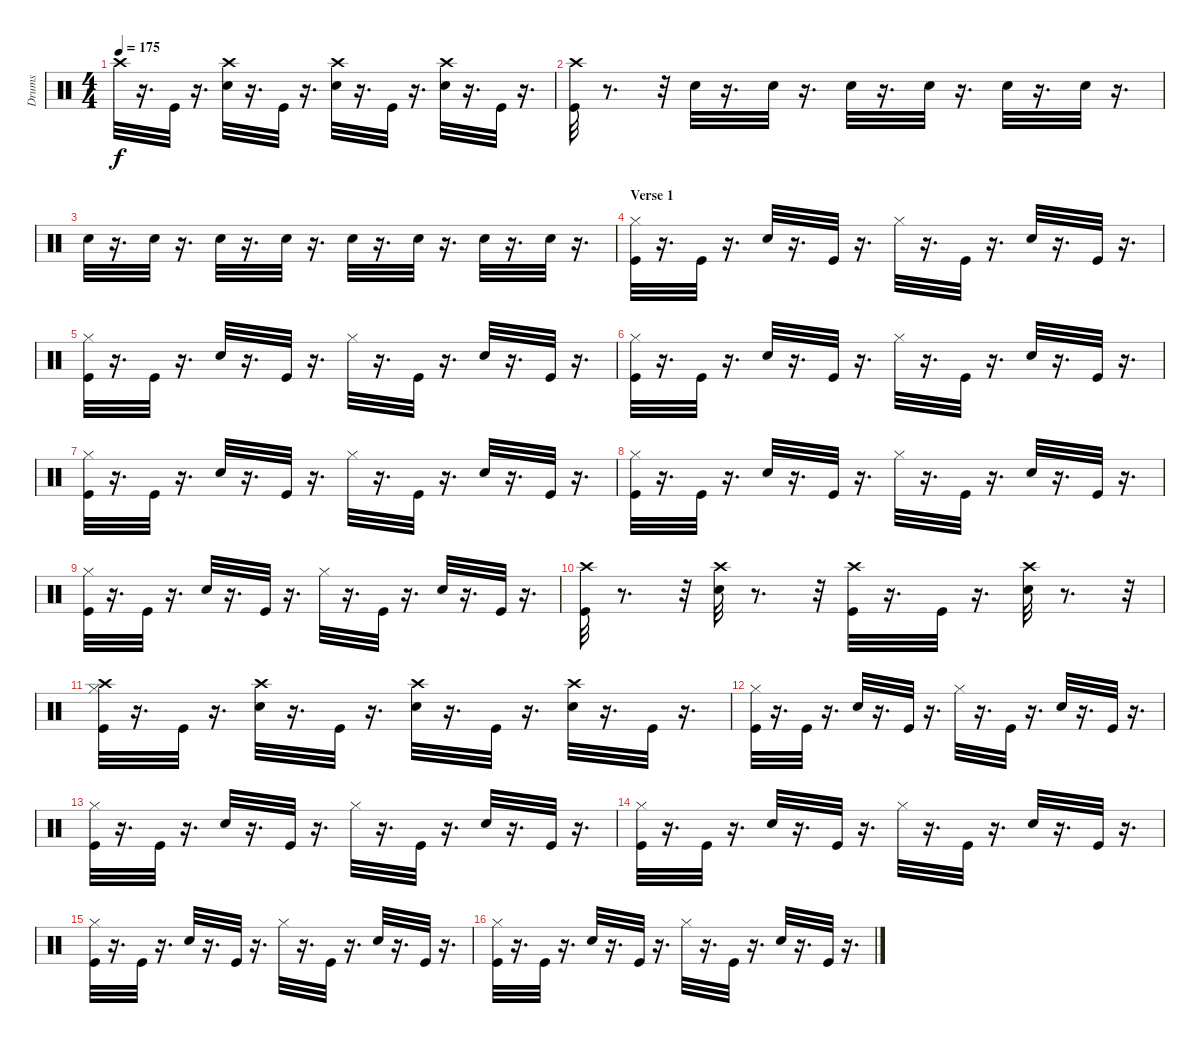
\track ("Drums" "Drums") {instrument percussion}
\staff {score}
\articulation defaults
\ts (4 4)
\tempo 175
\clef neutral
\ks c "Crash high (hit)".32{dy f}
r.16{d} "Kick (hit)".32 r.16{d} ("Crash high (hit)" "Electric Snare (hit)").32 r.16{d} "Kick (hit)".32 r.16{d} ("Crash high (hit)" "Electric Snare (hit)").32 r.16{d} "Kick (hit)".32 r.16{d} ("Crash high (hit)" "Electric Snare (hit)").32 r.16{d} "Kick (hit)".32 r.16{d} |
("Crash high (hit)" "Kick (hit)").32 r.8{d} r.32 "Electric Snare (hit)".32 r.16{d} "Electric Snare (hit)".32 r.16{d} "Electric Snare (hit)".32 r.16{d} "Electric Snare (hit)".32 r.16{d} "Electric Snare (hit)".32 r.16{d} "Electric Snare (hit)".32 r.16{d} |
"Electric Snare (hit)".32 r.16{d} "Electric Snare (hit)".32 r.16{d} "Electric Snare (hit)".32 r.16{d} "Electric Snare (hit)".32 r.16{d} "Electric Snare (hit)".32 r.16{d} "Electric Snare (hit)".32 r.16{d} "Electric Snare (hit)".32 r.16{d} "Electric Snare (hit)".32 r.16{d} |
\section ("" "Verse 1")
("Hi-Hat (closed)" "Kick (hit)").32 r.16{d} "Kick (hit)".32 r.16{d} "Electric Snare (hit)".32 r.16{d} "Kick (hit)".32 r.16{d} "Hi-Hat (closed)".32 r.16{d} "Kick (hit)".32 r.16{d} "Electric Snare (hit)".32 r.16{d} "Kick (hit)".32 r.16{d} |
("Hi-Hat (closed)" "Kick (hit)").32 r.16{d} "Kick (hit)".32 r.16{d} "Electric Snare (hit)".32 r.16{d} "Kick (hit)".32 r.16{d} "Hi-Hat (closed)".32 r.16{d} "Kick (hit)".32 r.16{d} "Electric Snare (hit)".32 r.16{d} "Kick (hit)".32 r.16{d} |
("Hi-Hat (closed)" "Kick (hit)").32 r.16{d} "Kick (hit)".32 r.16{d} "Electric Snare (hit)".32 r.16{d} "Kick (hit)".32 r.16{d} "Hi-Hat (closed)".32 r.16{d} "Kick (hit)".32 r.16{d} "Electric Snare (hit)".32 r.16{d} "Kick (hit)".32 r.16{d} |
("Hi-Hat (closed)" "Kick (hit)").32 r.16{d} "Kick (hit)".32 r.16{d} "Electric Snare (hit)".32 r.16{d} "Kick (hit)".32 r.16{d} "Hi-Hat (closed)".32 r.16{d} "Kick (hit)".32 r.16{d} "Electric Snare (hit)".32 r.16{d} "Kick (hit)".32 r.16{d} |
("Hi-Hat (closed)" "Kick (hit)").32 r.16{d} "Kick (hit)".32 r.16{d} "Electric Snare (hit)".32 r.16{d} "Kick (hit)".32 r.16{d} "Hi-Hat (closed)".32 r.16{d} "Kick (hit)".32 r.16{d} "Electric Snare (hit)".32 r.16{d} "Kick (hit)".32 r.16{d} |
("Hi-Hat (closed)" "Kick (hit)").32 r.16{d} "Kick (hit)".32 r.16{d} "Electric Snare (hit)".32 r.16{d} "Kick (hit)".32 r.16{d} "Hi-Hat (closed)".32 r.16{d} "Kick (hit)".32 r.16{d} "Electric Snare (hit)".32 r.16{d} "Kick (hit)".32 r.16{d} |
("Crash high (hit)" "Kick (hit)").32 r.8{d} r.32 ("Crash high (hit)" "Electric Snare (hit)").32 r.8{d} r.32 ("Crash high (hit)" "Kick (hit)").32 r.16{d} "Kick (hit)".32 r.16{d} ("Crash high (hit)" "Electric Snare (hit)").32 r.8{d} r.32 |
("Crash high (hit)" "Hi-Hat (closed)" "Kick (hit)").32 r.16{d} "Kick (hit)".32 r.16{d} ("Crash high (hit)" "Electric Snare (hit)").32 r.16{d} "Kick (hit)".32 r.16{d} ("Crash high (hit)" "Electric Snare (hit)").32 r.16{d} "Kick (hit)".32 r.16{d} ("Crash high (hit)" "Electric Snare (hit)").32 r.16{d} "Kick (hit)".32 r.16{d} |
("Hi-Hat (closed)" "Kick (hit)").32 r.16{d} "Kick (hit)".32 r.16{d} "Electric Snare (hit)".32 r.16{d} "Kick (hit)".32 r.16{d} "Hi-Hat (closed)".32 r.16{d} "Kick (hit)".32 r.16{d} "Electric Snare (hit)".32 r.16{d} "Kick (hit)".32 r.16{d} |
("Hi-Hat (closed)" "Kick (hit)").32 r.16{d} "Kick (hit)".32 r.16{d} "Electric Snare (hit)".32 r.16{d} "Kick (hit)".32 r.16{d} "Hi-Hat (closed)".32 r.16{d} "Kick (hit)".32 r.16{d} "Electric Snare (hit)".32 r.16{d} "Kick (hit)".32 r.16{d} |
("Hi-Hat (closed)" "Kick (hit)").32 r.16{d} "Kick (hit)".32 r.16{d} "Electric Snare (hit)".32 r.16{d} "Kick (hit)".32 r.16{d} "Hi-Hat (closed)".32 r.16{d} "Kick (hit)".32 r.16{d} "Electric Snare (hit)".32 r.16{d} "Kick (hit)".32 r.16{d} |
("Hi-Hat (closed)" "Kick (hit)").32 r.16{d} "Kick (hit)".32 r.16{d} "Electric Snare (hit)".32 r.16{d} "Kick (hit)".32 r.16{d} "Hi-Hat (closed)".32 r.16{d} "Kick (hit)".32 r.16{d} "Electric Snare (hit)".32 r.16{d} "Kick (hit)".32 r.16{d} |
("Hi-Hat (closed)" "Kick (hit)").32 r.16{d} "Kick (hit)".32 r.16{d} "Electric Snare (hit)".32 r.16{d} "Kick (hit)".32 r.16{d} "Hi-Hat (closed)".32 r.16{d} "Kick (hit)".32 r.16{d} "Electric Snare (hit)".32 r.16{d} "Kick (hit)".32 r.16{d}
